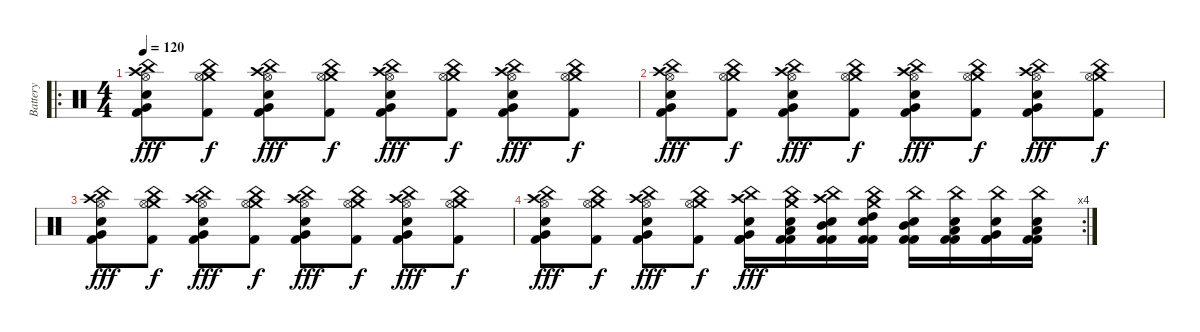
\track ("Battery" "Battery") {instrument percussion}
\staff {score}
\articulation defaults
\ro
\ts (4 4)
\tempo 120
\clef neutral
\ks c
("Crash high (hit)" "China (hit)" "Very Low Tom (hit)" "Kick (hit) 2" "Hi-Hat (open)" "Electric Snare (hit)").8{dy fff} ("Crash medium (hit)" "China (hit)" "Hi-Hat (open)" "Kick (hit) 2").8{dy f} ("Crash high (hit)" "China (hit)" "Very Low Tom (hit)" "Kick (hit) 2" "Hi-Hat (open)" "Electric Snare (hit)").8{dy fff} ("Crash medium (hit)" "China (hit)" "Hi-Hat (open)" "Kick (hit) 2").8{dy f} ("Crash high (hit)" "China (hit)" "Very Low Tom (hit)" "Kick (hit) 2" "Hi-Hat (open)" "Electric Snare (hit)").8{dy fff} ("Crash medium (hit)" "China (hit)" "Hi-Hat (open)" "Kick (hit) 2").8{dy f} ("Crash high (hit)" "China (hit)" "Very Low Tom (hit)" "Kick (hit) 2" "Hi-Hat (open)" "Electric Snare (hit)").8{dy fff} ("Crash medium (hit)" "China (hit)" "Hi-Hat (open)" "Kick (hit) 2").8{dy f} |
("Crash high (hit)" "China (hit)" "Very Low Tom (hit)" "Kick (hit) 2" "Hi-Hat (open)" "Electric Snare (hit)").8{dy fff} ("Crash medium (hit)" "China (hit)" "Hi-Hat (open)" "Kick (hit) 2").8{dy f} ("Crash high (hit)" "China (hit)" "Very Low Tom (hit)" "Kick (hit) 2" "Hi-Hat (open)" "Electric Snare (hit)").8{dy fff} ("Crash medium (hit)" "China (hit)" "Hi-Hat (open)" "Kick (hit) 2").8{dy f} ("Crash high (hit)" "China (hit)" "Very Low Tom (hit)" "Kick (hit) 2" "Hi-Hat (open)" "Electric Snare (hit)").8{dy fff} ("Crash medium (hit)" "China (hit)" "Hi-Hat (open)" "Kick (hit) 2").8{dy f} ("Crash high (hit)" "China (hit)" "Very Low Tom (hit)" "Kick (hit) 2" "Hi-Hat (open)" "Electric Snare (hit)").8{dy fff} ("Crash medium (hit)" "China (hit)" "Hi-Hat (open)" "Kick (hit) 2").8{dy f} |
("Crash high (hit)" "China (hit)" "Very Low Tom (hit)" "Kick (hit) 2" "Hi-Hat (open)" "Electric Snare (hit)").8{dy fff} ("Crash medium (hit)" "China (hit)" "Hi-Hat (open)" "Kick (hit) 2").8{dy f} ("Crash high (hit)" "China (hit)" "Very Low Tom (hit)" "Kick (hit) 2" "Hi-Hat (open)" "Electric Snare (hit)").8{dy fff} ("Crash medium (hit)" "China (hit)" "Hi-Hat (open)" "Kick (hit) 2").8{dy f} ("Crash high (hit)" "China (hit)" "Very Low Tom (hit)" "Kick (hit) 2" "Hi-Hat (open)" "Electric Snare (hit)").8{dy fff} ("Crash medium (hit)" "China (hit)" "Hi-Hat (open)" "Kick (hit) 2").8{dy f} ("Crash high (hit)" "China (hit)" "Very Low Tom (hit)" "Kick (hit) 2" "Hi-Hat (open)" "Electric Snare (hit)").8{dy fff} ("Crash medium (hit)" "China (hit)" "Hi-Hat (open)" "Kick (hit) 2").8{dy f} |
\rc 4
("Crash high (hit)" "China (hit)" "Very Low Tom (hit)" "Kick (hit) 2" "Hi-Hat (open)" "Electric Snare (hit)").8{dy fff} ("Crash medium (hit)" "China (hit)" "Hi-Hat (open)" "Kick (hit) 2").8{dy f} ("Crash high (hit)" "China (hit)" "Very Low Tom (hit)" "Kick (hit) 2" "Hi-Hat (open)" "Electric Snare (hit)").8{dy fff} ("Crash medium (hit)" "China (hit)" "Hi-Hat (open)" "Kick (hit) 2").8{dy f} ("Crash high (hit)" "China (hit)" "Very Low Tom (hit)" "Kick (hit) 2" "Kick (hit) 2" "Electric Snare (hit)").16{dy fff} ("Crash medium (hit)" "China (hit)" "Low Tom (hit)" "Kick (hit) 2" "Kick (hit) 2" "Electric Snare (hit)").16 ("Crash high (hit)" "China (hit)" "Mid Tom (hit)" "Kick (hit) 2" "Kick (hit) 2" "Electric Snare (hit)").16 ("Crash medium (hit)" "China (hit)" "High Tom (hit)" "Kick (hit) 2" "Kick (hit) 2" "Electric Snare (hit)").16 ("China (hit)" "Mid Tom (hit)" "Kick (hit) 2" "Kick (hit) 2" "Electric Snare (hit)").16 ("China (hit)" "Low Tom (hit)" "Kick (hit) 2" "Kick (hit) 2" "Electric Snare (hit)").16 ("China (hit)" "Very Low Tom (hit)" "Kick (hit) 2" "Kick (hit) 2" "Electric Snare (hit)").16 ("China (hit)" "Low Floor Tom (hit)" "Kick (hit) 2" "Kick (hit) 2" "Electric Snare (hit)").16
